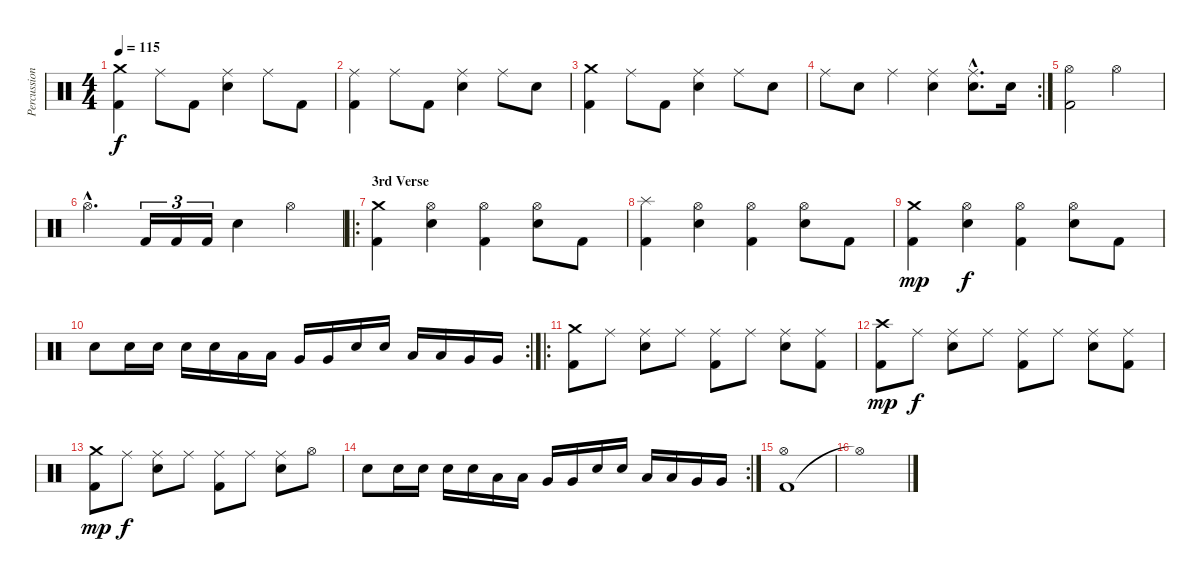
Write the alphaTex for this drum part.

\track ("Percussion" "Percussion") {instrument percussion}
\staff {score}
\articulation defaults
\ts (4 4)
\tempo 115
\clef neutral
\ks c
("Kick (hit) 2" "Crash medium (hit)").4{dy f} "Ride (middle)".8 "Kick (hit) 2".8 ("Electric Snare (hit)" "Ride (middle)").4 "Ride (middle)".8 "Kick (hit) 2".8 |
("Kick (hit) 2" "Ride (middle)").4 "Ride (middle)".8 "Kick (hit) 2".8 ("Electric Snare (hit)" "Ride (middle)").4 "Ride (middle)".8 "Electric Snare (hit)".8 |
("Kick (hit) 2" "Crash medium (hit)").4 "Ride (middle)".8 "Kick (hit) 2".8 ("Electric Snare (hit)" "Ride (middle)").4 "Ride (middle)".8 "Electric Snare (hit)".8 |
\rc 2 "Ride (middle)".8 "Electric Snare (hit)".8 "Ride (middle)".4
("Electric Snare (hit)" "Ride (middle)").4 ("Electric Snare (hit)"{hac} "Ride (middle)"{hac}).8{d} "Electric Snare (hit)".16 |
("Kick (hit) 2" "Hi-Hat (open)").2 "Hi-Hat (open)".2 |
"Hi-Hat (open)"{hac}.4{d} "Kick (hit) 2".16{tu (3 2)} "Kick (hit) 2".16{tu (3 2)} "Kick (hit) 2".16{tu (3 2)} "Electric Snare (hit)".4 "Hi-Hat (open)".4 |
\ro
\section ("" "3rd Verse")
("Kick (hit) 2" "Crash medium (hit)").4 ("Electric Snare (hit)" "Hi-Hat (open)").4 ("Kick (hit) 2" "Hi-Hat (open)").4 ("Electric Snare (hit)" "Hi-Hat (open)").8 "Kick (hit) 2".8 |
("Kick (hit) 2" "Splash (hit)").4 ("Electric Snare (hit)" "Hi-Hat (open)").4 ("Kick (hit) 2" "Hi-Hat (open)").4 ("Electric Snare (hit)" "Hi-Hat (open)").8 "Kick (hit) 2".8 |
("Kick (hit) 2" "Crash medium (hit)").4{dy mp} ("Electric Snare (hit)" "Hi-Hat (open)").4{dy f} ("Kick (hit) 2" "Hi-Hat (open)").4 ("Electric Snare (hit)" "Hi-Hat (open)").8 "Kick (hit) 2".8 |
\rc 2 "Electric Snare (hit)".8 "Electric Snare (hit)".16 "Electric Snare (hit)".16 "Electric Snare (hit)".16 "Electric Snare (hit)".16 "Low Tom (hit)".16 "Low Tom (hit)".16 "Very Low Tom (hit)".16 "Very Low Tom (hit)".16 "Electric Snare (hit)".16 "Electric Snare (hit)".16 "Low Tom (hit)".16 "Low Tom (hit)".16 "Very Low Tom (hit)".16 "Very Low Tom (hit)".16
|
\ro
("Kick (hit) 2" "Crash medium (hit)").8 "Ride (middle)".8 ("Electric Snare (hit)" "Ride (middle)").8 "Ride (middle)".8 ("Kick (hit) 2" "Ride (middle)").8 "Ride (middle)".8 ("Electric Snare (hit)" "Ride (middle)").8 ("Kick (hit) 2" "Ride (middle)").8 |
("Kick (hit) 2" "Crash high (hit)").8{dy mp} "Ride (middle)".8{dy f} ("Electric Snare (hit)" "Ride (middle)").8 "Ride (middle)".8 ("Kick (hit) 2" "Ride (middle)").8 "Ride (middle)".8 ("Electric Snare (hit)" "Ride (middle)").8 ("Kick (hit) 2" "Ride (middle)").8 |
("Kick (hit) 2" "Crash medium (hit)").8{dy mp} "Ride (middle)".8{dy f} ("Electric Snare (hit)" "Ride (middle)").8 "Ride (middle)".8 ("Kick (hit) 2" "Ride (middle)").8 "Ride (middle)".8 ("Electric Snare (hit)" "Ride (middle)").8 "Hi-Hat (open)".8 |
\rc 2 "Electric Snare (hit)".8 "Electric Snare (hit)".16 "Electric Snare (hit)".16 "Electric Snare (hit)".16 "Electric Snare (hit)".16 "Low Tom (hit)".16 "Low Tom (hit)".16 "Very Low Tom (hit)".16 "Very Low Tom (hit)".16 "Electric Snare (hit)".16 "Electric Snare (hit)".16 "Low Tom (hit)".16 "Low Tom (hit)".16 "Very Low Tom (hit)".16 "Very Low Tom (hit)".16
|
("Kick (hit) 2" "Hi-Hat (open)").1 |
"Hi-Hat (open)"{t}.1
